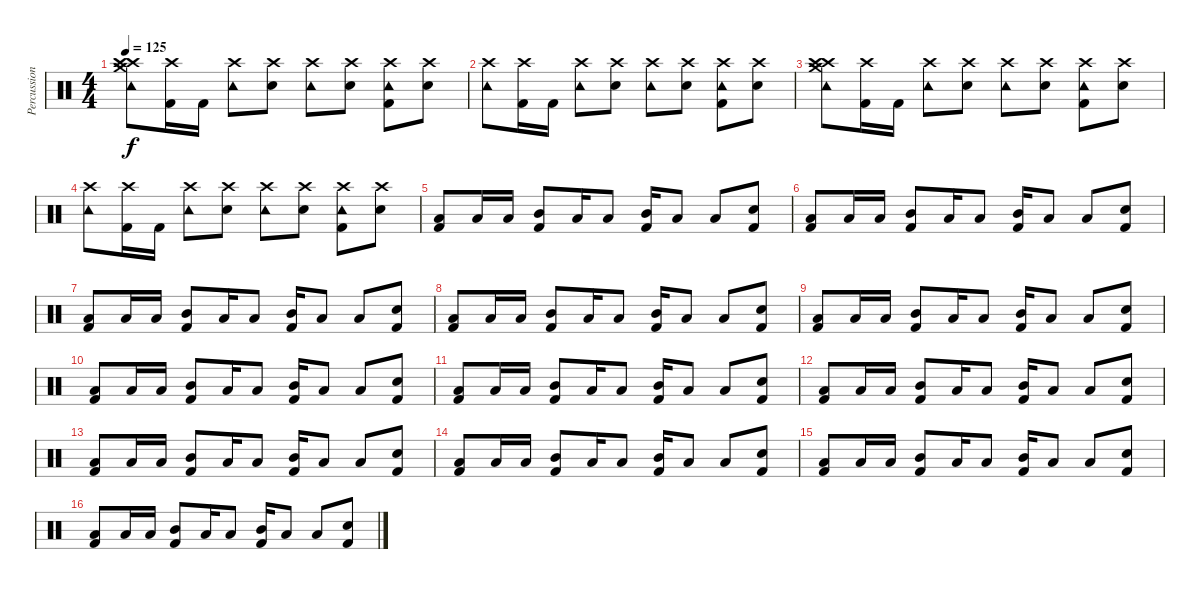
\track ("Percussioni" "Percussion") {instrument percussion}
\staff {score}
\articulation defaults
\ts (4 4)
\tempo 125
\clef neutral
\ks c
("Crash high (hit)" "Crash high (hit)" "Crash medium (hit)" "Tambourine (hit)").8{dy f} ("Crash high (hit)" "Kick (hit) 2").16 "Kick (hit) 2".16 ("Crash high (hit)" "Tambourine (hit)").8 ("Crash high (hit)" "Snare (hit) 2").8 ("Crash high (hit)" "Tambourine (hit)").8 ("Crash high (hit)" "Snare (hit) 2").8 ("Crash high (hit)" "Kick (hit) 2" "Tambourine (hit)").8 ("Crash high (hit)" "Snare (hit) 2").8 |
("Crash high (hit)" "Tambourine (hit)").8 ("Crash high (hit)" "Kick (hit) 2").16 "Kick (hit) 2".16 ("Crash high (hit)" "Tambourine (hit)").8 ("Crash high (hit)" "Snare (hit) 2").8 ("Crash high (hit)" "Tambourine (hit)").8 ("Crash high (hit)" "Snare (hit) 2").8 ("Crash high (hit)" "Kick (hit) 2" "Tambourine (hit)").8 ("Crash high (hit)" "Snare (hit) 2").8 |
("Crash high (hit)" "Crash high (hit)" "Crash medium (hit)" "Tambourine (hit)").8 ("Crash high (hit)" "Kick (hit) 2").16 "Kick (hit) 2".16 ("Crash high (hit)" "Tambourine (hit)").8 ("Crash high (hit)" "Snare (hit) 2").8 ("Crash high (hit)" "Tambourine (hit)").8 ("Crash high (hit)" "Snare (hit) 2").8 ("Crash high (hit)" "Kick (hit) 2" "Tambourine (hit)").8 ("Crash high (hit)" "Snare (hit) 2").8 |
("Crash high (hit)" "Tambourine (hit)").8 ("Crash high (hit)" "Kick (hit) 2").16 "Kick (hit) 2".16 ("Crash high (hit)" "Tambourine (hit)").8 ("Crash high (hit)" "Snare (hit) 2").8 ("Crash high (hit)" "Tambourine (hit)").8 ("Crash high (hit)" "Snare (hit) 2").8 ("Crash high (hit)" "Kick (hit) 2" "Tambourine (hit)").8 ("Crash high (hit)" "Snare (hit) 2").8 |
("Low Floor Tom (hit)" "Kick (hit) 2").8 "Low Floor Tom (hit)".16 "Low Floor Tom (hit)".16 ("Mid Tom (hit)" "Kick (hit) 2").8 "Low Floor Tom (hit)".16 "Low Floor Tom (hit)".8 ("Mid Tom (hit)" "Kick (hit) 2").16 "Low Floor Tom (hit)".8 "Low Floor Tom (hit)".8 ("Snare (hit) 2" "Kick (hit) 2").8 |
("Low Floor Tom (hit)" "Kick (hit) 2").8 "Low Floor Tom (hit)".16 "Low Floor Tom (hit)".16 ("Mid Tom (hit)" "Kick (hit) 2").8 "Low Floor Tom (hit)".16 "Low Floor Tom (hit)".8 ("Mid Tom (hit)" "Kick (hit) 2").16 "Low Floor Tom (hit)".8 "Low Floor Tom (hit)".8 ("Snare (hit) 2" "Kick (hit) 2").8 |
("Low Floor Tom (hit)" "Kick (hit) 2").8 "Low Floor Tom (hit)".16 "Low Floor Tom (hit)".16 ("Mid Tom (hit)" "Kick (hit) 2").8 "Low Floor Tom (hit)".16 "Low Floor Tom (hit)".8 ("Mid Tom (hit)" "Kick (hit) 2").16 "Low Floor Tom (hit)".8 "Low Floor Tom (hit)".8 ("Snare (hit) 2" "Kick (hit) 2").8 |
("Low Floor Tom (hit)" "Kick (hit) 2").8 "Low Floor Tom (hit)".16 "Low Floor Tom (hit)".16 ("Mid Tom (hit)" "Kick (hit) 2").8 "Low Floor Tom (hit)".16 "Low Floor Tom (hit)".8 ("Mid Tom (hit)" "Kick (hit) 2").16 "Low Floor Tom (hit)".8 "Low Floor Tom (hit)".8 ("Snare (hit) 2" "Kick (hit) 2").8 |
("Low Floor Tom (hit)" "Kick (hit) 2").8 "Low Floor Tom (hit)".16 "Low Floor Tom (hit)".16 ("Mid Tom (hit)" "Kick (hit) 2").8 "Low Floor Tom (hit)".16 "Low Floor Tom (hit)".8 ("Mid Tom (hit)" "Kick (hit) 2").16 "Low Floor Tom (hit)".8 "Low Floor Tom (hit)".8 ("Snare (hit) 2" "Kick (hit) 2").8 |
("Low Floor Tom (hit)" "Kick (hit) 2").8 "Low Floor Tom (hit)".16 "Low Floor Tom (hit)".16 ("Mid Tom (hit)" "Kick (hit) 2").8 "Low Floor Tom (hit)".16 "Low Floor Tom (hit)".8 ("Mid Tom (hit)" "Kick (hit) 2").16 "Low Floor Tom (hit)".8 "Low Floor Tom (hit)".8 ("Snare (hit) 2" "Kick (hit) 2").8 |
("Low Floor Tom (hit)" "Kick (hit) 2").8 "Low Floor Tom (hit)".16 "Low Floor Tom (hit)".16 ("Mid Tom (hit)" "Kick (hit) 2").8 "Low Floor Tom (hit)".16 "Low Floor Tom (hit)".8 ("Mid Tom (hit)" "Kick (hit) 2").16 "Low Floor Tom (hit)".8 "Low Floor Tom (hit)".8 ("Snare (hit) 2" "Kick (hit) 2").8 |
("Low Floor Tom (hit)" "Kick (hit) 2").8 "Low Floor Tom (hit)".16 "Low Floor Tom (hit)".16 ("Mid Tom (hit)" "Kick (hit) 2").8 "Low Floor Tom (hit)".16 "Low Floor Tom (hit)".8 ("Mid Tom (hit)" "Kick (hit) 2").16 "Low Floor Tom (hit)".8 "Low Floor Tom (hit)".8 ("Snare (hit) 2" "Kick (hit) 2").8 |
("Low Floor Tom (hit)" "Kick (hit) 2").8 "Low Floor Tom (hit)".16 "Low Floor Tom (hit)".16 ("Mid Tom (hit)" "Kick (hit) 2").8 "Low Floor Tom (hit)".16 "Low Floor Tom (hit)".8 ("Mid Tom (hit)" "Kick (hit) 2").16 "Low Floor Tom (hit)".8 "Low Floor Tom (hit)".8 ("Snare (hit) 2" "Kick (hit) 2").8 |
("Low Floor Tom (hit)" "Kick (hit) 2").8 "Low Floor Tom (hit)".16 "Low Floor Tom (hit)".16 ("Mid Tom (hit)" "Kick (hit) 2").8 "Low Floor Tom (hit)".16 "Low Floor Tom (hit)".8 ("Mid Tom (hit)" "Kick (hit) 2").16 "Low Floor Tom (hit)".8 "Low Floor Tom (hit)".8 ("Snare (hit) 2" "Kick (hit) 2").8 |
("Low Floor Tom (hit)" "Kick (hit) 2").8 "Low Floor Tom (hit)".16 "Low Floor Tom (hit)".16 ("Mid Tom (hit)" "Kick (hit) 2").8 "Low Floor Tom (hit)".16 "Low Floor Tom (hit)".8 ("Mid Tom (hit)" "Kick (hit) 2").16 "Low Floor Tom (hit)".8 "Low Floor Tom (hit)".8 ("Snare (hit) 2" "Kick (hit) 2").8 |
("Low Floor Tom (hit)" "Kick (hit) 2").8 "Low Floor Tom (hit)".16 "Low Floor Tom (hit)".16 ("Mid Tom (hit)" "Kick (hit) 2").8 "Low Floor Tom (hit)".16 "Low Floor Tom (hit)".8 ("Mid Tom (hit)" "Kick (hit) 2").16 "Low Floor Tom (hit)".8 "Low Floor Tom (hit)".8 ("Snare (hit) 2" "Kick (hit) 2").8
